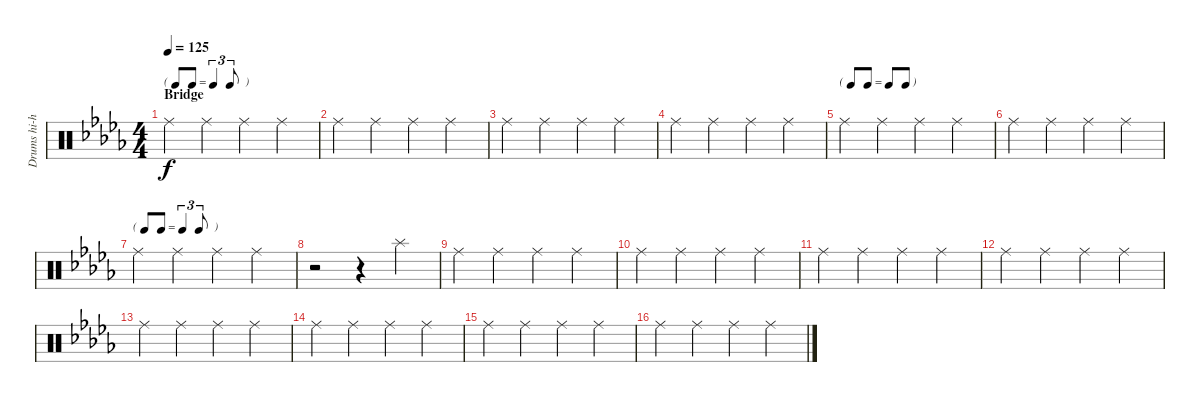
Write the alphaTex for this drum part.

\track ("Drums hi-hat" "Drums hi-h") {instrument percussion}
\staff {score}
\articulation defaults
\ts (4 4)
\tf triplet8th
\section ("" "Bridge")
\tempo 125
\clef neutral
\ks db "Ride (middle)".4{dy f} "Ride (middle)".4 "Ride (middle)".4 "Ride (middle)".4
|
"Ride (middle)".4 "Ride (middle)".4 "Ride (middle)".4 "Ride (middle)".4 |
"Ride (middle)".4 "Ride (middle)".4 "Ride (middle)".4 "Ride (middle)".4 |
"Ride (middle)".4 "Ride (middle)".4 "Ride (middle)".4 "Ride (middle)".4 |
\tf none "Ride (middle)".4 "Ride (middle)".4 "Ride (middle)".4 "Ride (middle)".4
|
"Ride (middle)".4 "Ride (middle)".4 "Ride (middle)".4 "Ride (middle)".4 |
\tf triplet8th "Ride (middle)".4 "Ride (middle)".4 "Ride (middle)".4 "Ride (middle)".4
|
r.2 r.4 "Splash (hit)".4 |
"Ride (middle)".4 "Ride (middle)".4 "Ride (middle)".4 "Ride (middle)".4 |
"Ride (middle)".4 "Ride (middle)".4 "Ride (middle)".4 "Ride (middle)".4 |
"Ride (middle)".4 "Ride (middle)".4 "Ride (middle)".4 "Ride (middle)".4 |
"Ride (middle)".4 "Ride (middle)".4 "Ride (middle)".4 "Ride (middle)".4 |
"Ride (middle)".4 "Ride (middle)".4 "Ride (middle)".4 "Ride (middle)".4 |
"Ride (middle)".4 "Ride (middle)".4 "Ride (middle)".4 "Ride (middle)".4 |
"Ride (middle)".4 "Ride (middle)".4 "Ride (middle)".4 "Ride (middle)".4 |
"Ride (middle)".4 "Ride (middle)".4 "Ride (middle)".4 "Ride (middle)".4
